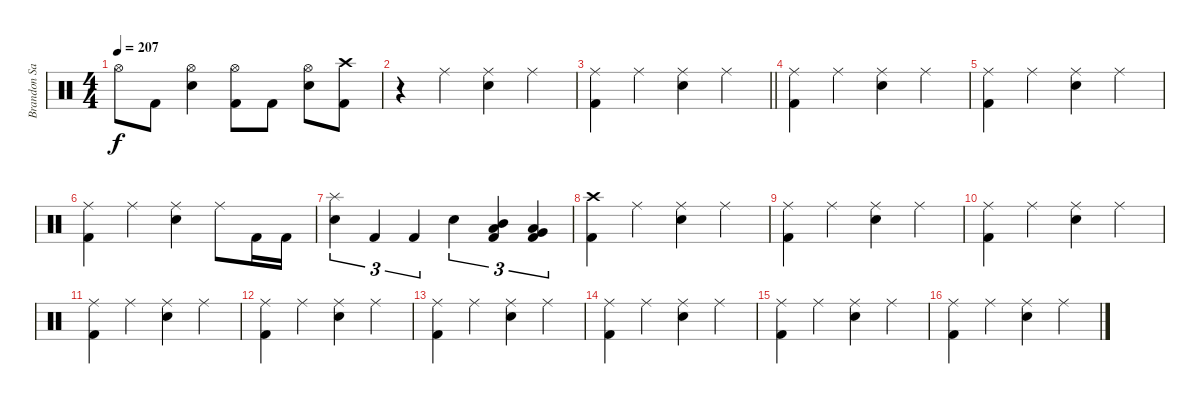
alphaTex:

\track ("Brandon Saller" "Brandon Sa") {instrument percussion}
\staff {score}
\articulation defaults
\ts (4 4)
\tempo 207
\clef neutral
\ks c "Hi-Hat (open)".8{dy f} "Kick (hit) 2".8
("Hi-Hat (open)" "Electric Snare (hit)").4 ("Hi-Hat (open)" "Kick (hit) 2").8 "Kick (hit) 2".8 ("Hi-Hat (open)" "Electric Snare (hit)").8 ("Crash high (hit)" "Kick (hit) 2").8 |
r.4 "Ride (middle)".4 ("Ride (middle)" "Electric Snare (hit)").4 "Ride (middle)".4 |
\barLineRight lightlight
("Ride (middle)" "Kick (hit) 2").4 "Ride (middle)".4 ("Ride (middle)" "Electric Snare (hit)").4 "Ride (middle)".4 |
("Ride (middle)" "Kick (hit) 2").4 "Ride (middle)".4 ("Ride (middle)" "Electric Snare (hit)").4 "Ride (middle)".4 |
("Ride (middle)" "Kick (hit) 2").4 "Ride (middle)".4 ("Ride (middle)" "Electric Snare (hit)").4 "Ride (middle)".4 |
("Ride (middle)" "Kick (hit) 2").4 "Ride (middle)".4 ("Ride (middle)" "Electric Snare (hit)").4 "Ride (middle)".8 "Kick (hit) 2".16 "Kick (hit) 2".16 |
("Splash (hit)" "Electric Snare (hit)").4{tu (3 2)} "Kick (hit) 2".4{tu (3 2)} "Kick (hit) 2".4{tu (3 2)} "Electric Snare (hit)".4{tu (3 2)} ("Mid Tom (hit)" "Low Tom (hit)" "Kick (hit) 2").4{tu (3 2)} ("Low Tom (hit)" "Very Low Tom (hit)" "Kick (hit) 2").4{tu (3 2)} |
("Crash high (hit)" "Kick (hit) 2").4 "Ride (middle)".4 ("Ride (middle)" "Electric Snare (hit)").4 "Ride (middle)".4 |
("Ride (middle)" "Kick (hit) 2").4 "Ride (middle)".4 ("Ride (middle)" "Electric Snare (hit)").4 "Ride (middle)".4 |
("Ride (middle)" "Kick (hit) 2").4 "Ride (middle)".4 ("Ride (middle)" "Electric Snare (hit)").4 "Ride (middle)".4 |
("Ride (middle)" "Kick (hit) 2").4 "Ride (middle)".4 ("Ride (middle)" "Electric Snare (hit)").4 "Ride (middle)".4 |
("Ride (middle)" "Kick (hit) 2").4 "Ride (middle)".4 ("Ride (middle)" "Electric Snare (hit)").4 "Ride (middle)".4 |
("Ride (middle)" "Kick (hit) 2").4 "Ride (middle)".4 ("Ride (middle)" "Electric Snare (hit)").4 "Ride (middle)".4 |
("Ride (middle)" "Kick (hit) 2").4 "Ride (middle)".4 ("Ride (middle)" "Electric Snare (hit)").4 "Ride (middle)".4 |
("Ride (middle)" "Kick (hit) 2").4 "Ride (middle)".4 ("Ride (middle)" "Electric Snare (hit)").4 "Ride (middle)".4 |
("Ride (middle)" "Kick (hit) 2").4 "Ride (middle)".4 ("Ride (middle)" "Electric Snare (hit)").4 "Ride (middle)".4
